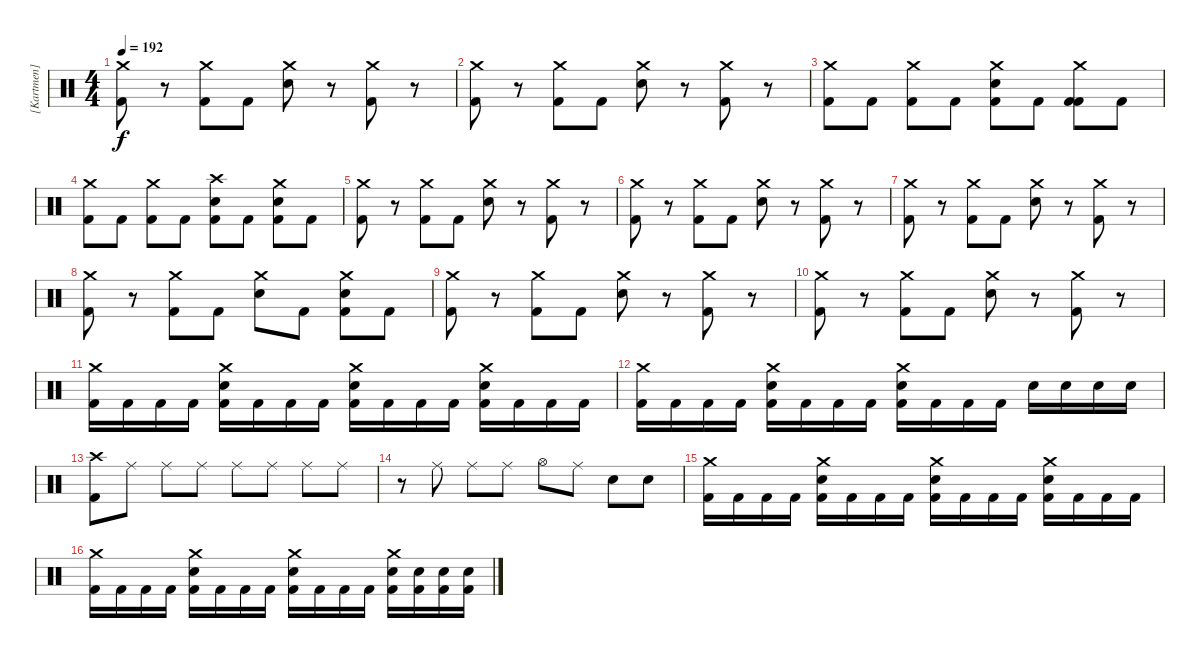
\track ("[Kartmen] - Drums" "[Kartmen] ") {instrument percussion}
\staff {score}
\articulation defaults
\ts (4 4)
\tempo 192
\clef neutral
\ks c
("Crash medium (hit)" "Kick (hit) 2").8{dy f} r.8 ("Crash medium (hit)" "Kick (hit) 2").8 "Kick (hit) 2".8 ("Crash medium (hit)" "Snare (hit) 2").8 r.8 ("Crash medium (hit)" "Kick (hit) 2").8 r.8 |
("Crash medium (hit)" "Kick (hit) 2").8 r.8 ("Crash medium (hit)" "Kick (hit) 2").8 "Kick (hit) 2".8 ("Crash medium (hit)" "Snare (hit) 2").8 r.8 ("Crash medium (hit)" "Kick (hit) 2").8 r.8 |
("Crash medium (hit)" "Kick (hit) 2").8 "Kick (hit) 2".8 ("Crash medium (hit)" "Kick (hit) 2").8 "Kick (hit) 2".8 ("Crash medium (hit)" "Kick (hit) 2" "Snare (hit) 2").8 "Kick (hit) 2".8 ("Crash medium (hit)" "Kick (hit) 2" "Kick (hit) 2").8 "Kick (hit) 2".8 |
("Crash medium (hit)" "Kick (hit) 2").8 "Kick (hit) 2".8 ("Crash medium (hit)" "Kick (hit) 2").8 "Kick (hit) 2".8 ("Crash high (hit)" "Kick (hit) 2"{tr (36 16)} "Snare (hit) 2").8 "Kick (hit) 2"{tr (36 16)}.8 ("Crash medium (hit)" "Kick (hit) 2"{tr (36 16)} "Snare (hit) 2").8 "Kick (hit) 2"{tr (36 16)}.8 |
("Crash medium (hit)" "Kick (hit) 2").8 r.8 ("Crash medium (hit)" "Kick (hit) 2").8 "Kick (hit) 2".8 ("Crash medium (hit)" "Snare (hit) 2").8 r.8 ("Crash medium (hit)" "Kick (hit) 2").8 r.8 |
("Crash medium (hit)" "Kick (hit) 2").8 r.8 ("Crash medium (hit)" "Kick (hit) 2").8 "Kick (hit) 2".8 ("Crash medium (hit)" "Snare (hit) 2").8 r.8 ("Crash medium (hit)" "Kick (hit) 2").8 r.8 |
("Crash medium (hit)" "Kick (hit) 2").8 r.8 ("Crash medium (hit)" "Kick (hit) 2").8 "Kick (hit) 2".8 ("Crash medium (hit)" "Snare (hit) 2").8 r.8 ("Crash medium (hit)" "Kick (hit) 2").8 r.8 |
("Crash medium (hit)" "Kick (hit) 2").8 r.8 ("Crash medium (hit)" "Kick (hit) 2").8 "Kick (hit) 2".8 ("Crash medium (hit)" "Snare (hit) 2").8 "Kick (hit) 2".8 ("Crash medium (hit)" "Kick (hit) 2" "Snare (hit) 2").8 "Kick (hit) 2".8 |
("Crash medium (hit)" "Kick (hit) 2").8 r.8 ("Crash medium (hit)" "Kick (hit) 2").8 "Kick (hit) 2".8 ("Crash medium (hit)" "Snare (hit) 2").8 r.8 ("Crash medium (hit)" "Kick (hit) 2").8 r.8 |
("Crash medium (hit)" "Kick (hit) 2").8 r.8 ("Crash medium (hit)" "Kick (hit) 2").8 "Kick (hit) 2".8 ("Crash medium (hit)" "Snare (hit) 2").8 r.8 ("Crash medium (hit)" "Kick (hit) 2").8 r.8 |
("Crash medium (hit)" "Kick (hit) 2").16 "Kick (hit) 2".16 "Kick (hit) 2".16 "Kick (hit) 2".16 ("Crash medium (hit)" "Kick (hit) 2" "Snare (hit) 2").16 "Kick (hit) 2".16 "Kick (hit) 2".16 "Kick (hit) 2".16 ("Crash medium (hit)" "Kick (hit) 2" "Snare (hit) 2").16 "Kick (hit) 2".16 "Kick (hit) 2".16 "Kick (hit) 2".16 ("Crash medium (hit)" "Kick (hit) 2" "Snare (hit) 2").16 "Kick (hit) 2".16 "Kick (hit) 2".16 "Kick (hit) 2".16 |
("Crash medium (hit)" "Kick (hit) 2").16 "Kick (hit) 2".16 "Kick (hit) 2".16 "Kick (hit) 2".16 ("Crash medium (hit)" "Kick (hit) 2" "Snare (hit) 2").16 "Kick (hit) 2".16 "Kick (hit) 2".16 "Kick (hit) 2".16 ("Crash medium (hit)" "Kick (hit) 2" "Snare (hit) 2").16 "Kick (hit) 2".16 "Kick (hit) 2".16 "Kick (hit) 2".16 "Snare (hit) 2".16 "Snare (hit) 2".16 "Snare (hit) 2".16 "Snare (hit) 2".16 |
("Crash high (hit)" "Kick (hit) 2").8 "Ride (middle)".8 "Ride (middle)".8 "Ride (middle)".8 "Ride (middle)".8 "Ride (middle)".8 "Ride (middle)".8 "Ride (middle)".8 |
r.8 "Ride (middle)".8 "Ride (middle)".8 "Ride (middle)".8 "Hi-Hat (open)".8 "Ride (middle)".8 "Snare (hit) 2".8 "Snare (hit) 2".8 |
("Crash medium (hit)" "Kick (hit) 2").16 "Kick (hit) 2".16 "Kick (hit) 2".16 "Kick (hit) 2".16 ("Crash medium (hit)" "Snare (hit) 2" "Kick (hit) 2").16 "Kick (hit) 2".16 "Kick (hit) 2".16 "Kick (hit) 2".16 ("Crash medium (hit)" "Snare (hit) 2" "Kick (hit) 2").16 "Kick (hit) 2".16 "Kick (hit) 2".16 "Kick (hit) 2".16 ("Crash medium (hit)" "Snare (hit) 2" "Kick (hit) 2").16 "Kick (hit) 2".16 "Kick (hit) 2".16 "Kick (hit) 2".16 |
("Crash medium (hit)" "Kick (hit) 2").16 "Kick (hit) 2".16 "Kick (hit) 2".16 "Kick (hit) 2".16 ("Crash medium (hit)" "Snare (hit) 2" "Kick (hit) 2").16 "Kick (hit) 2".16 "Kick (hit) 2".16 "Kick (hit) 2".16 ("Crash medium (hit)" "Snare (hit) 2" "Kick (hit) 2").16 "Kick (hit) 2".16 "Kick (hit) 2".16 "Kick (hit) 2".16 ("Crash medium (hit)" "Snare (hit) 2" "Kick (hit) 2").16 ("Snare (hit) 2" "Kick (hit) 2").16 ("Snare (hit) 2" "Kick (hit) 2").16 ("Snare (hit) 2" "Kick (hit) 2").16
